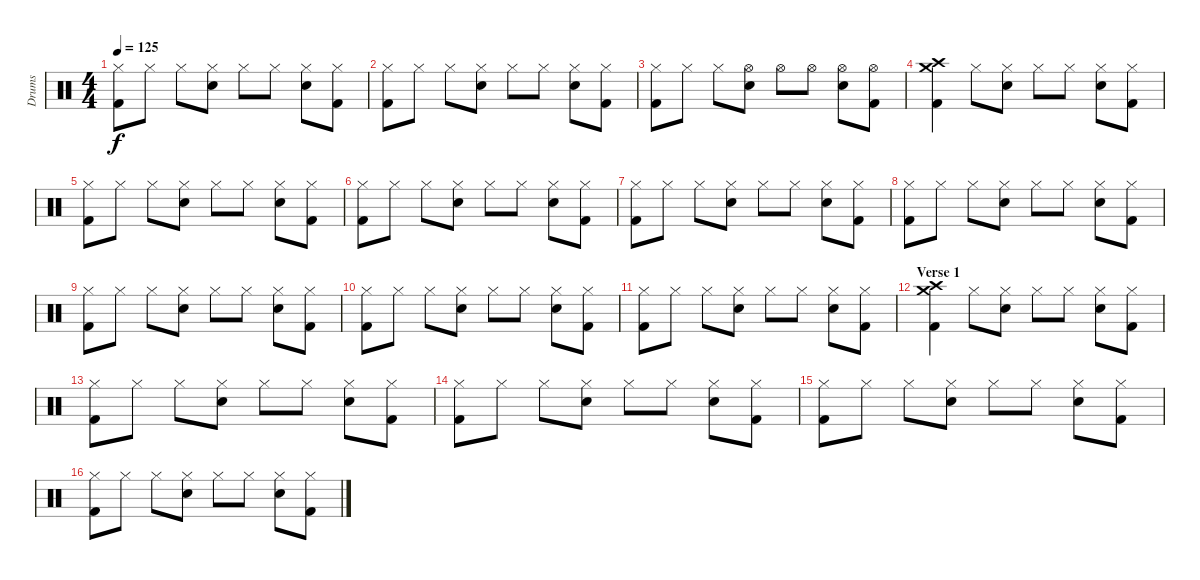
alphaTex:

\track ("Drums" "Drums") {instrument percussion}
\staff {score}
\articulation defaults
\ts (4 4)
\tempo 125
\clef neutral
\ks c
("Hi-Hat (closed)" "Kick (hit) 2").8{dy f} "Hi-Hat (closed)".8 "Hi-Hat (closed)".8 ("Hi-Hat (closed)" "Snare (hit) 2").8 "Hi-Hat (closed)".8 "Hi-Hat (closed)".8 ("Hi-Hat (closed)" "Snare (hit) 2").8 ("Hi-Hat (closed)" "Kick (hit) 2").8 |
("Hi-Hat (closed)" "Kick (hit) 2").8 "Hi-Hat (closed)".8 "Hi-Hat (closed)".8 ("Hi-Hat (closed)" "Snare (hit) 2").8 "Hi-Hat (closed)".8 "Hi-Hat (closed)".8 ("Hi-Hat (closed)" "Snare (hit) 2").8 ("Hi-Hat (closed)" "Kick (hit) 2").8 |
("Hi-Hat (closed)" "Kick (hit) 2").8 "Hi-Hat (closed)".8 "Hi-Hat (closed)".8 ("Hi-Hat (open)" "Snare (hit) 2").8 "Hi-Hat (open)".8 "Hi-Hat (open)".8 ("Hi-Hat (open)" "Snare (hit) 2").8 ("Hi-Hat (open)" "Kick (hit) 2").8 |
("Crash high (hit)" "Crash medium (hit)" "Kick (hit) 2").4 "Hi-Hat (closed)".8 ("Hi-Hat (closed)" "Snare (hit) 2").8 "Hi-Hat (closed)".8 "Hi-Hat (closed)".8 ("Hi-Hat (closed)" "Snare (hit) 2").8 ("Hi-Hat (closed)" "Kick (hit) 2").8 |
("Hi-Hat (closed)" "Kick (hit) 2").8 "Hi-Hat (closed)".8 "Hi-Hat (closed)".8 ("Hi-Hat (closed)" "Snare (hit) 2").8 "Hi-Hat (closed)".8 "Hi-Hat (closed)".8 ("Hi-Hat (closed)" "Snare (hit) 2").8 ("Hi-Hat (closed)" "Kick (hit) 2").8 |
("Hi-Hat (closed)" "Kick (hit) 2").8 "Hi-Hat (closed)".8 "Hi-Hat (closed)".8 ("Hi-Hat (closed)" "Snare (hit) 2").8 "Hi-Hat (closed)".8 "Hi-Hat (closed)".8 ("Hi-Hat (closed)" "Snare (hit) 2").8 ("Hi-Hat (closed)" "Kick (hit) 2").8 |
("Hi-Hat (closed)" "Kick (hit) 2").8 "Hi-Hat (closed)".8 "Hi-Hat (closed)".8 ("Hi-Hat (closed)" "Snare (hit) 2").8 "Hi-Hat (closed)".8 "Hi-Hat (closed)".8 ("Hi-Hat (closed)" "Snare (hit) 2").8 ("Hi-Hat (closed)" "Kick (hit) 2").8 |
("Hi-Hat (closed)" "Kick (hit) 2").8 "Hi-Hat (closed)".8 "Hi-Hat (closed)".8 ("Hi-Hat (closed)" "Snare (hit) 2").8 "Hi-Hat (closed)".8 "Hi-Hat (closed)".8 ("Hi-Hat (closed)" "Snare (hit) 2").8 ("Hi-Hat (closed)" "Kick (hit) 2").8 |
("Hi-Hat (closed)" "Kick (hit) 2").8 "Hi-Hat (closed)".8 "Hi-Hat (closed)".8 ("Hi-Hat (closed)" "Snare (hit) 2").8 "Hi-Hat (closed)".8 "Hi-Hat (closed)".8 ("Hi-Hat (closed)" "Snare (hit) 2").8 ("Hi-Hat (closed)" "Kick (hit) 2").8 |
("Hi-Hat (closed)" "Kick (hit) 2").8 "Hi-Hat (closed)".8 "Hi-Hat (closed)".8 ("Hi-Hat (closed)" "Snare (hit) 2").8 "Hi-Hat (closed)".8 "Hi-Hat (closed)".8 ("Hi-Hat (closed)" "Snare (hit) 2").8 ("Hi-Hat (closed)" "Kick (hit) 2").8 |
("Hi-Hat (closed)" "Kick (hit) 2").8 "Hi-Hat (closed)".8 "Hi-Hat (closed)".8 ("Hi-Hat (closed)" "Snare (hit) 2").8 "Hi-Hat (closed)".8 "Hi-Hat (closed)".8 ("Hi-Hat (closed)" "Snare (hit) 2").8 ("Hi-Hat (closed)" "Kick (hit) 2").8 |
\section ("" "Verse 1")
("Crash high (hit)" "Crash medium (hit)" "Kick (hit) 2").4 "Hi-Hat (closed)".8 ("Hi-Hat (closed)" "Snare (hit) 2").8 "Hi-Hat (closed)".8 "Hi-Hat (closed)".8 ("Hi-Hat (closed)" "Snare (hit) 2").8 ("Hi-Hat (closed)" "Kick (hit) 2").8 |
("Hi-Hat (closed)" "Kick (hit) 2").8 "Hi-Hat (closed)".8 "Hi-Hat (closed)".8 ("Hi-Hat (closed)" "Snare (hit) 2").8 "Hi-Hat (closed)".8 "Hi-Hat (closed)".8 ("Hi-Hat (closed)" "Snare (hit) 2").8 ("Hi-Hat (closed)" "Kick (hit) 2").8 |
("Hi-Hat (closed)" "Kick (hit) 2").8 "Hi-Hat (closed)".8 "Hi-Hat (closed)".8 ("Hi-Hat (closed)" "Snare (hit) 2").8 "Hi-Hat (closed)".8 "Hi-Hat (closed)".8 ("Hi-Hat (closed)" "Snare (hit) 2").8 ("Hi-Hat (closed)" "Kick (hit) 2").8 |
("Hi-Hat (closed)" "Kick (hit) 2").8 "Hi-Hat (closed)".8 "Hi-Hat (closed)".8 ("Hi-Hat (closed)" "Snare (hit) 2").8 "Hi-Hat (closed)".8 "Hi-Hat (closed)".8 ("Hi-Hat (closed)" "Snare (hit) 2").8 ("Hi-Hat (closed)" "Kick (hit) 2").8 |
("Hi-Hat (closed)" "Kick (hit) 2").8 "Hi-Hat (closed)".8 "Hi-Hat (closed)".8 ("Hi-Hat (closed)" "Snare (hit) 2").8 "Hi-Hat (closed)".8 "Hi-Hat (closed)".8 ("Hi-Hat (closed)" "Snare (hit) 2").8 ("Hi-Hat (closed)" "Kick (hit) 2").8
